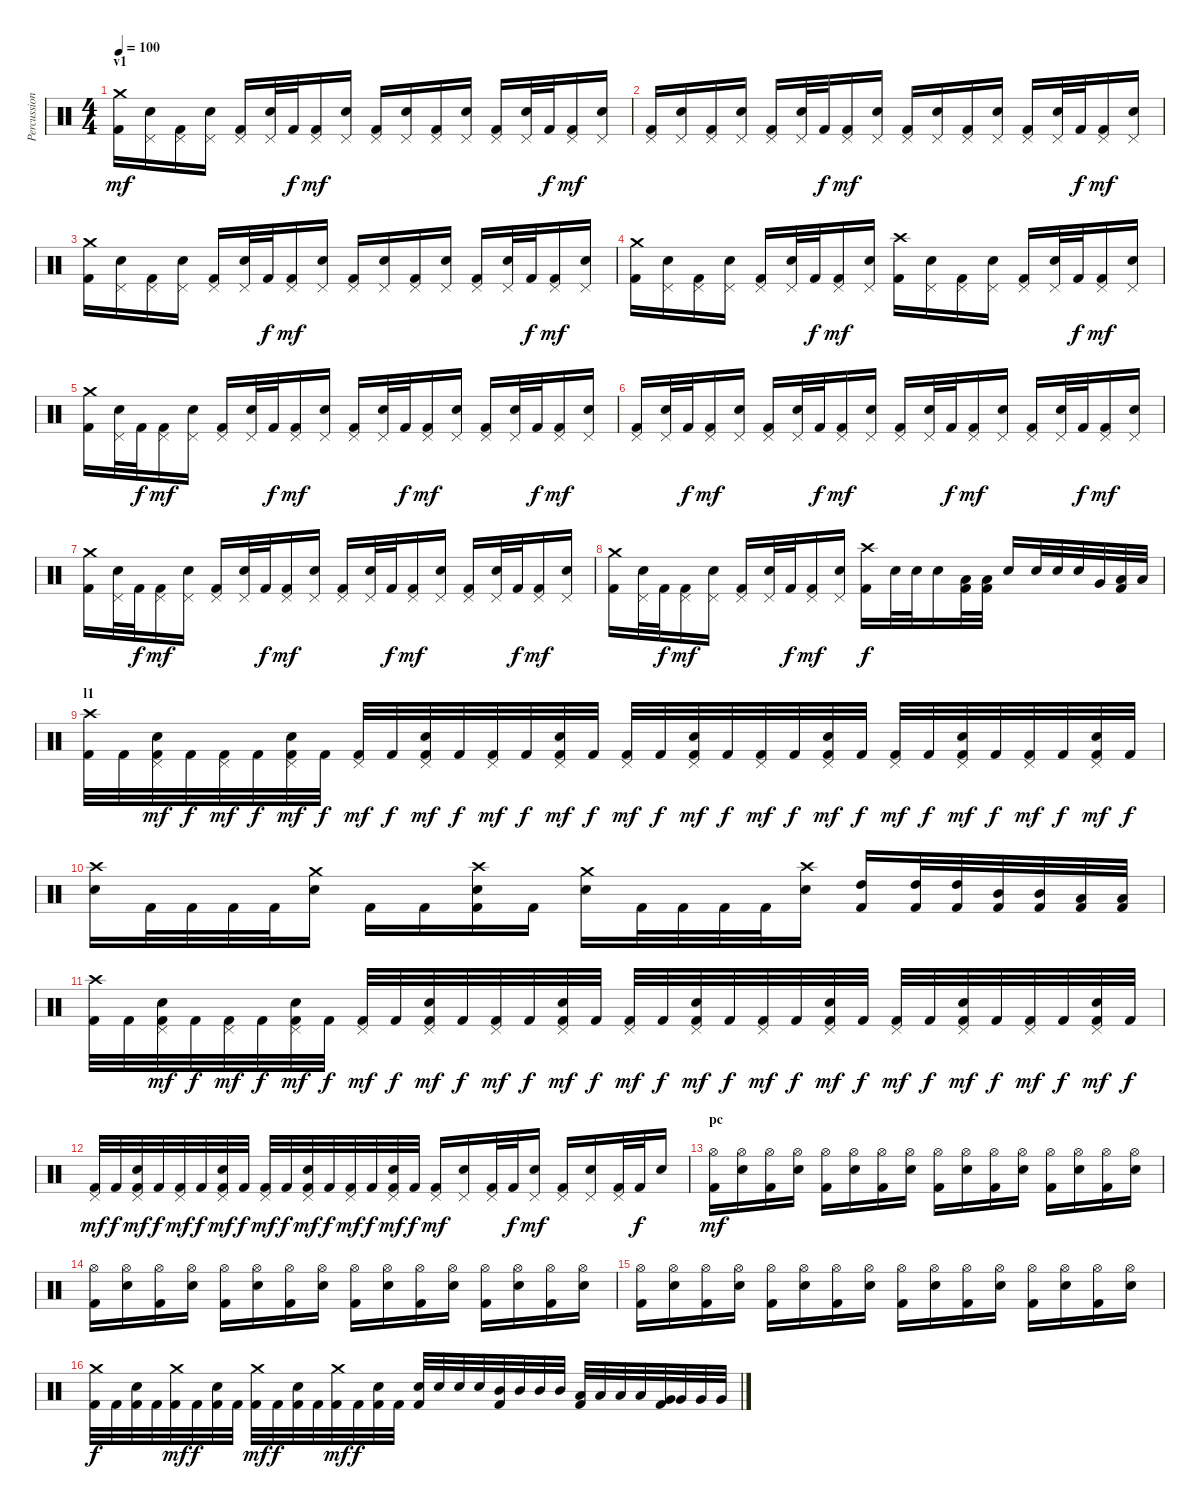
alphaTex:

\track ("Percussion" "Percussion") {instrument percussion}
\staff {score}
\articulation defaults
\ts (4 4)
\section ("" "v1")
\tempo 100
\clef neutral
\ks c
("Crash medium (hit)" "Kick (hit) 2").16{dy mf} ("Pedal Hi-Hat (hit)" "Electric Snare (hit)").16 ("Pedal Hi-Hat (hit)" "Kick (hit) 2").16 ("Pedal Hi-Hat (hit)" "Electric Snare (hit)").16 ("Pedal Hi-Hat (hit)" "Kick (hit) 2").16 ("Pedal Hi-Hat (hit)" "Electric Snare (hit)").32 "Kick (hit) 2".32{dy f} ("Pedal Hi-Hat (hit)" "Kick (hit) 2").16{dy mf} ("Pedal Hi-Hat (hit)" "Electric Snare (hit)").16 ("Pedal Hi-Hat (hit)" "Kick (hit) 2").16 ("Pedal Hi-Hat (hit)" "Electric Snare (hit)").16 ("Pedal Hi-Hat (hit)" "Kick (hit) 2").16 ("Pedal Hi-Hat (hit)" "Electric Snare (hit)").16 ("Pedal Hi-Hat (hit)" "Kick (hit) 2").16 ("Pedal Hi-Hat (hit)" "Electric Snare (hit)").32 "Kick (hit) 2".32{dy f} ("Pedal Hi-Hat (hit)" "Kick (hit) 2").16{dy mf} ("Pedal Hi-Hat (hit)" "Electric Snare (hit)").16 |
("Pedal Hi-Hat (hit)" "Kick (hit) 2").16 ("Pedal Hi-Hat (hit)" "Electric Snare (hit)").16 ("Pedal Hi-Hat (hit)" "Kick (hit) 2").16 ("Pedal Hi-Hat (hit)" "Electric Snare (hit)").16 ("Pedal Hi-Hat (hit)" "Kick (hit) 2").16 ("Pedal Hi-Hat (hit)" "Electric Snare (hit)").32 "Kick (hit) 2".32{dy f} ("Pedal Hi-Hat (hit)" "Kick (hit) 2").16{dy mf} ("Pedal Hi-Hat (hit)" "Electric Snare (hit)").16 ("Pedal Hi-Hat (hit)" "Kick (hit) 2").16 ("Pedal Hi-Hat (hit)" "Electric Snare (hit)").16 ("Pedal Hi-Hat (hit)" "Kick (hit) 2").16 ("Pedal Hi-Hat (hit)" "Electric Snare (hit)").16 ("Pedal Hi-Hat (hit)" "Kick (hit) 2").16 ("Pedal Hi-Hat (hit)" "Electric Snare (hit)").32 "Kick (hit) 2".32{dy f} ("Pedal Hi-Hat (hit)" "Kick (hit) 2").16{dy mf} ("Pedal Hi-Hat (hit)" "Electric Snare (hit)").16 |
("Crash medium (hit)" "Kick (hit) 2").16 ("Pedal Hi-Hat (hit)" "Electric Snare (hit)").16 ("Pedal Hi-Hat (hit)" "Kick (hit) 2").16 ("Pedal Hi-Hat (hit)" "Electric Snare (hit)").16 ("Pedal Hi-Hat (hit)" "Kick (hit) 2").16 ("Pedal Hi-Hat (hit)" "Electric Snare (hit)").32 "Kick (hit) 2".32{dy f} ("Pedal Hi-Hat (hit)" "Kick (hit) 2").16{dy mf} ("Pedal Hi-Hat (hit)" "Electric Snare (hit)").16 ("Pedal Hi-Hat (hit)" "Kick (hit) 2").16 ("Pedal Hi-Hat (hit)" "Electric Snare (hit)").16 ("Pedal Hi-Hat (hit)" "Kick (hit) 2").16 ("Pedal Hi-Hat (hit)" "Electric Snare (hit)").16 ("Pedal Hi-Hat (hit)" "Kick (hit) 2").16 ("Pedal Hi-Hat (hit)" "Electric Snare (hit)").32 "Kick (hit) 2".32{dy f} ("Pedal Hi-Hat (hit)" "Kick (hit) 2").16{dy mf} ("Pedal Hi-Hat (hit)" "Electric Snare (hit)").16 |
("Crash medium (hit)" "Kick (hit) 2").16 ("Pedal Hi-Hat (hit)" "Electric Snare (hit)").16 ("Pedal Hi-Hat (hit)" "Kick (hit) 2").16 ("Pedal Hi-Hat (hit)" "Electric Snare (hit)").16 ("Pedal Hi-Hat (hit)" "Kick (hit) 2").16 ("Pedal Hi-Hat (hit)" "Electric Snare (hit)").32 "Kick (hit) 2".32{dy f} ("Pedal Hi-Hat (hit)" "Kick (hit) 2").16{dy mf} ("Pedal Hi-Hat (hit)" "Electric Snare (hit)").16 ("Crash high (hit)" "Kick (hit) 2").16 ("Pedal Hi-Hat (hit)" "Electric Snare (hit)").16 ("Pedal Hi-Hat (hit)" "Kick (hit) 2").16 ("Pedal Hi-Hat (hit)" "Electric Snare (hit)").16 ("Pedal Hi-Hat (hit)" "Kick (hit) 2").16 ("Pedal Hi-Hat (hit)" "Electric Snare (hit)").32 "Kick (hit) 2".32{dy f} ("Pedal Hi-Hat (hit)" "Kick (hit) 2").16{dy mf} ("Pedal Hi-Hat (hit)" "Electric Snare (hit)").16 |
("Crash medium (hit)" "Kick (hit) 2").16 ("Pedal Hi-Hat (hit)" "Electric Snare (hit)").32 "Kick (hit) 2".32{dy f} ("Pedal Hi-Hat (hit)" "Kick (hit) 2").16{dy mf} ("Pedal Hi-Hat (hit)" "Electric Snare (hit)").16 ("Pedal Hi-Hat (hit)" "Kick (hit) 2").16 ("Pedal Hi-Hat (hit)" "Electric Snare (hit)").32 "Kick (hit) 2".32{dy f} ("Pedal Hi-Hat (hit)" "Kick (hit) 2").16{dy mf} ("Pedal Hi-Hat (hit)" "Electric Snare (hit)").16 ("Pedal Hi-Hat (hit)" "Kick (hit) 2").16 ("Pedal Hi-Hat (hit)" "Electric Snare (hit)").32 "Kick (hit) 2".32{dy f} ("Pedal Hi-Hat (hit)" "Kick (hit) 2").16{dy mf} ("Pedal Hi-Hat (hit)" "Electric Snare (hit)").16 ("Pedal Hi-Hat (hit)" "Kick (hit) 2").16 ("Pedal Hi-Hat (hit)" "Electric Snare (hit)").32 "Kick (hit) 2".32{dy f} ("Pedal Hi-Hat (hit)" "Kick (hit) 2").16{dy mf} ("Pedal Hi-Hat (hit)" "Electric Snare (hit)").16 |
("Pedal Hi-Hat (hit)" "Kick (hit) 2").16 ("Pedal Hi-Hat (hit)" "Electric Snare (hit)").32 "Kick (hit) 2".32{dy f} ("Pedal Hi-Hat (hit)" "Kick (hit) 2").16{dy mf} ("Pedal Hi-Hat (hit)" "Electric Snare (hit)").16 ("Pedal Hi-Hat (hit)" "Kick (hit) 2").16 ("Pedal Hi-Hat (hit)" "Electric Snare (hit)").32 "Kick (hit) 2".32{dy f} ("Pedal Hi-Hat (hit)" "Kick (hit) 2").16{dy mf} ("Pedal Hi-Hat (hit)" "Electric Snare (hit)").16 ("Pedal Hi-Hat (hit)" "Kick (hit) 2").16 ("Pedal Hi-Hat (hit)" "Electric Snare (hit)").32 "Kick (hit) 2".32{dy f} ("Pedal Hi-Hat (hit)" "Kick (hit) 2").16{dy mf} ("Pedal Hi-Hat (hit)" "Electric Snare (hit)").16 ("Pedal Hi-Hat (hit)" "Kick (hit) 2").16 ("Pedal Hi-Hat (hit)" "Electric Snare (hit)").32 "Kick (hit) 2".32{dy f} ("Pedal Hi-Hat (hit)" "Kick (hit) 2").16{dy mf} ("Pedal Hi-Hat (hit)" "Electric Snare (hit)").16 |
("Crash medium (hit)" "Kick (hit) 2").16 ("Pedal Hi-Hat (hit)" "Electric Snare (hit)").32 "Kick (hit) 2".32{dy f} ("Pedal Hi-Hat (hit)" "Kick (hit) 2").16{dy mf} ("Pedal Hi-Hat (hit)" "Electric Snare (hit)").16 ("Pedal Hi-Hat (hit)" "Kick (hit) 2").16 ("Pedal Hi-Hat (hit)" "Electric Snare (hit)").32 "Kick (hit) 2".32{dy f} ("Pedal Hi-Hat (hit)" "Kick (hit) 2").16{dy mf} ("Pedal Hi-Hat (hit)" "Electric Snare (hit)").16 ("Pedal Hi-Hat (hit)" "Kick (hit) 2").16 ("Pedal Hi-Hat (hit)" "Electric Snare (hit)").32 "Kick (hit) 2".32{dy f} ("Pedal Hi-Hat (hit)" "Kick (hit) 2").16{dy mf} ("Pedal Hi-Hat (hit)" "Electric Snare (hit)").16 ("Pedal Hi-Hat (hit)" "Kick (hit) 2").16 ("Pedal Hi-Hat (hit)" "Electric Snare (hit)").32 "Kick (hit) 2".32{dy f} ("Pedal Hi-Hat (hit)" "Kick (hit) 2").16{dy mf} ("Pedal Hi-Hat (hit)" "Electric Snare (hit)").16 |
("Crash medium (hit)" "Kick (hit) 2").16 ("Pedal Hi-Hat (hit)" "Electric Snare (hit)").32 "Kick (hit) 2".32{dy f} ("Pedal Hi-Hat (hit)" "Kick (hit) 2").16{dy mf} ("Pedal Hi-Hat (hit)" "Electric Snare (hit)").16 ("Pedal Hi-Hat (hit)" "Kick (hit) 2").16 ("Pedal Hi-Hat (hit)" "Electric Snare (hit)").32 "Kick (hit) 2".32{dy f} ("Pedal Hi-Hat (hit)" "Kick (hit) 2").16{dy mf} ("Pedal Hi-Hat (hit)" "Electric Snare (hit)").16 ("Crash high (hit)" "Kick (hit) 2").16{dy f} "Electric Snare (hit)".32 "Electric Snare (hit)".32 "Electric Snare (hit)".16 ("Low Tom (hit)" "Kick (hit) 2").32 ("Low Tom (hit)" "Kick (hit) 2").32 "Electric Snare (hit)".16 "Electric Snare (hit)".32 "Electric Snare (hit)".32 "Electric Snare (hit)".32 "Very Low Tom (hit)".32 ("Low Floor Tom (hit)" "Kick (hit) 2").32 "Low Floor Tom (hit)".32 |
\section ("" "l1")
("Crash high (hit)" "Kick (hit) 2").32 "Kick (hit) 2".32 ("Pedal Hi-Hat (hit)" "Electric Snare (hit)" "Kick (hit) 2").32{dy mf} "Kick (hit) 2".32{dy f} ("Pedal Hi-Hat (hit)" "Kick (hit) 2").32{dy mf} "Kick (hit) 2".32{dy f} ("Pedal Hi-Hat (hit)" "Electric Snare (hit)" "Kick (hit) 2").32{dy mf} "Kick (hit) 2".32{dy f} ("Pedal Hi-Hat (hit)" "Kick (hit) 2").32{dy mf} "Kick (hit) 2".32{dy f} ("Pedal Hi-Hat (hit)" "Electric Snare (hit)" "Kick (hit) 2").32{dy mf} "Kick (hit) 2".32{dy f} ("Pedal Hi-Hat (hit)" "Kick (hit) 2").32{dy mf} "Kick (hit) 2".32{dy f} ("Pedal Hi-Hat (hit)" "Electric Snare (hit)" "Kick (hit) 2").32{dy mf} "Kick (hit) 2".32{dy f} ("Pedal Hi-Hat (hit)" "Kick (hit) 2").32{dy mf} "Kick (hit) 2".32{dy f} ("Pedal Hi-Hat (hit)" "Electric Snare (hit)" "Kick (hit) 2").32{dy mf} "Kick (hit) 2".32{dy f} ("Pedal Hi-Hat (hit)" "Kick (hit) 2").32{dy mf} "Kick (hit) 2".32{dy f} ("Pedal Hi-Hat (hit)" "Electric Snare (hit)" "Kick (hit) 2").32{dy mf} "Kick (hit) 2".32{dy f} ("Pedal Hi-Hat (hit)" "Kick (hit) 2").32{dy mf} "Kick (hit) 2".32{dy f} ("Pedal Hi-Hat (hit)" "Electric Snare (hit)" "Kick (hit) 2").32{dy mf} "Kick (hit) 2".32{dy f} ("Pedal Hi-Hat (hit)" "Kick (hit) 2").32{dy mf} "Kick (hit) 2".32{dy f} ("Pedal Hi-Hat (hit)" "Electric Snare (hit)" "Kick (hit) 2").32{dy mf} "Kick (hit) 2".32{dy f} |
("Crash high (hit)" "Electric Snare (hit)").16 "Kick (hit) 2".32 "Kick (hit) 2".32 "Kick (hit) 2".32 "Kick (hit) 2".32 ("Crash medium (hit)" "Electric Snare (hit)").16 "Kick (hit) 2".16 "Kick (hit) 2".16 ("Crash high (hit)" "Electric Snare (hit)" "Kick (hit) 2").16 "Kick (hit) 2".16 ("Crash medium (hit)" "Electric Snare (hit)").16 "Kick (hit) 2".32 "Kick (hit) 2".32 "Kick (hit) 2".32 "Kick (hit) 2".32 ("Crash high (hit)" "Electric Snare (hit)").16 ("High Tom (hit)" "Kick (hit) 2").16 ("High Tom (hit)" "Kick (hit) 2").32 ("High Tom (hit)" "Kick (hit) 2").32 ("Mid Tom (hit)" "Kick (hit) 2").32 ("Mid Tom (hit)" "Kick (hit) 2").32 ("Low Tom (hit)" "Kick (hit) 2").32 ("Low Tom (hit)" "Kick (hit) 2").32 |
("Crash high (hit)" "Kick (hit) 2").32 "Kick (hit) 2".32 ("Pedal Hi-Hat (hit)" "Electric Snare (hit)" "Kick (hit) 2").32{dy mf} "Kick (hit) 2".32{dy f} ("Pedal Hi-Hat (hit)" "Kick (hit) 2").32{dy mf} "Kick (hit) 2".32{dy f} ("Pedal Hi-Hat (hit)" "Electric Snare (hit)" "Kick (hit) 2").32{dy mf} "Kick (hit) 2".32{dy f} ("Pedal Hi-Hat (hit)" "Kick (hit) 2").32{dy mf} "Kick (hit) 2".32{dy f} ("Pedal Hi-Hat (hit)" "Electric Snare (hit)" "Kick (hit) 2").32{dy mf} "Kick (hit) 2".32{dy f} ("Pedal Hi-Hat (hit)" "Kick (hit) 2").32{dy mf} "Kick (hit) 2".32{dy f} ("Pedal Hi-Hat (hit)" "Electric Snare (hit)" "Kick (hit) 2").32{dy mf} "Kick (hit) 2".32{dy f} ("Pedal Hi-Hat (hit)" "Kick (hit) 2").32{dy mf} "Kick (hit) 2".32{dy f} ("Pedal Hi-Hat (hit)" "Electric Snare (hit)" "Kick (hit) 2").32{dy mf} "Kick (hit) 2".32{dy f} ("Pedal Hi-Hat (hit)" "Kick (hit) 2").32{dy mf} "Kick (hit) 2".32{dy f} ("Pedal Hi-Hat (hit)" "Electric Snare (hit)" "Kick (hit) 2").32{dy mf} "Kick (hit) 2".32{dy f} ("Pedal Hi-Hat (hit)" "Kick (hit) 2").32{dy mf} "Kick (hit) 2".32{dy f} ("Pedal Hi-Hat (hit)" "Electric Snare (hit)" "Kick (hit) 2").32{dy mf} "Kick (hit) 2".32{dy f} ("Pedal Hi-Hat (hit)" "Kick (hit) 2").32{dy mf} "Kick (hit) 2".32{dy f} ("Pedal Hi-Hat (hit)" "Electric Snare (hit)" "Kick (hit) 2").32{dy mf} "Kick (hit) 2".32{dy f} |
("Pedal Hi-Hat (hit)" "Kick (hit) 2").32{dy mf} "Kick (hit) 2".32{dy f} ("Pedal Hi-Hat (hit)" "Electric Snare (hit)" "Kick (hit) 2").32{dy mf} "Kick (hit) 2".32{dy f} ("Pedal Hi-Hat (hit)" "Kick (hit) 2").32{dy mf} "Kick (hit) 2".32{dy f} ("Pedal Hi-Hat (hit)" "Electric Snare (hit)" "Kick (hit) 2").32{dy mf} "Kick (hit) 2".32{dy f} ("Pedal Hi-Hat (hit)" "Kick (hit) 2").32{dy mf} "Kick (hit) 2".32{dy f} ("Pedal Hi-Hat (hit)" "Electric Snare (hit)" "Kick (hit) 2").32{dy mf} "Kick (hit) 2".32{dy f} ("Pedal Hi-Hat (hit)" "Kick (hit) 2").32{dy mf} "Kick (hit) 2".32{dy f} ("Pedal Hi-Hat (hit)" "Electric Snare (hit)" "Kick (hit) 2").32{dy mf} "Kick (hit) 2".32{dy f} ("Pedal Hi-Hat (hit)" "Kick (hit) 2").16{dy mf} ("Pedal Hi-Hat (hit)" "Electric Snare (hit)").16 ("Pedal Hi-Hat (hit)" "Kick (hit) 2").32 "Kick (hit) 2".32{dy f} ("Pedal Hi-Hat (hit)" "Electric Snare (hit)").16{dy mf} ("Pedal Hi-Hat (hit)" "Kick (hit) 2").16 ("Pedal Hi-Hat (hit)" "Electric Snare (hit)").16 ("Pedal Hi-Hat (hit)" "Kick (hit) 2").32 "Kick (hit) 2".32{dy f} "Electric Snare (hit)".16 |
\section ("" "pc")
("Hi-Hat (open)" "Kick (hit) 2").16{dy mf} ("Hi-Hat (open)" "Electric Snare (hit)").16 ("Hi-Hat (open)" "Kick (hit) 2").16 ("Hi-Hat (open)" "Electric Snare (hit)").16 ("Hi-Hat (open)" "Kick (hit) 2").16 ("Hi-Hat (open)" "Electric Snare (hit)").16 ("Hi-Hat (open)" "Kick (hit) 2").16 ("Hi-Hat (open)" "Electric Snare (hit)").16 ("Hi-Hat (open)" "Kick (hit) 2").16 ("Hi-Hat (open)" "Electric Snare (hit)").16 ("Hi-Hat (open)" "Kick (hit) 2").16 ("Hi-Hat (open)" "Electric Snare (hit)").16 ("Hi-Hat (open)" "Kick (hit) 2").16 ("Hi-Hat (open)" "Electric Snare (hit)").16 ("Hi-Hat (open)" "Kick (hit) 2").16 ("Hi-Hat (open)" "Electric Snare (hit)").16 |
("Hi-Hat (open)" "Kick (hit) 2").16 ("Hi-Hat (open)" "Electric Snare (hit)").16 ("Hi-Hat (open)" "Kick (hit) 2").16 ("Hi-Hat (open)" "Electric Snare (hit)").16 ("Hi-Hat (open)" "Kick (hit) 2").16 ("Hi-Hat (open)" "Electric Snare (hit)").16 ("Hi-Hat (open)" "Kick (hit) 2").16 ("Hi-Hat (open)" "Electric Snare (hit)").16 ("Hi-Hat (open)" "Kick (hit) 2").16 ("Hi-Hat (open)" "Electric Snare (hit)").16 ("Hi-Hat (open)" "Kick (hit) 2").16 ("Hi-Hat (open)" "Electric Snare (hit)").16 ("Hi-Hat (open)" "Kick (hit) 2").16 ("Hi-Hat (open)" "Electric Snare (hit)").16 ("Hi-Hat (open)" "Kick (hit) 2").16 ("Hi-Hat (open)" "Electric Snare (hit)").16 |
("Hi-Hat (open)" "Kick (hit) 2").16 ("Hi-Hat (open)" "Electric Snare (hit)").16 ("Hi-Hat (open)" "Kick (hit) 2").16 ("Hi-Hat (open)" "Electric Snare (hit)").16 ("Hi-Hat (open)" "Kick (hit) 2").16 ("Hi-Hat (open)" "Electric Snare (hit)").16 ("Hi-Hat (open)" "Kick (hit) 2").16 ("Hi-Hat (open)" "Electric Snare (hit)").16 ("Hi-Hat (open)" "Kick (hit) 2").16 ("Hi-Hat (open)" "Electric Snare (hit)").16 ("Hi-Hat (open)" "Kick (hit) 2").16 ("Hi-Hat (open)" "Electric Snare (hit)").16 ("Hi-Hat (open)" "Kick (hit) 2").16 ("Hi-Hat (open)" "Electric Snare (hit)").16 ("Hi-Hat (open)" "Kick (hit) 2").16 ("Hi-Hat (open)" "Electric Snare (hit)").16 |
("Crash medium (hit)" "Kick (hit) 2").32{dy f} "Kick (hit) 2".32 ("Electric Snare (hit)" "Kick (hit) 2").32 "Kick (hit) 2".32 ("Crash medium (hit)" "Kick (hit) 2").32{dy mf} "Kick (hit) 2".32{dy f} ("Electric Snare (hit)" "Kick (hit) 2").32 "Kick (hit) 2".32 ("Crash medium (hit)" "Kick (hit) 2").32{dy mf} "Kick (hit) 2".32{dy f} ("Electric Snare (hit)" "Kick (hit) 2").32 "Kick (hit) 2".32 ("Crash medium (hit)" "Kick (hit) 2").32{dy mf} "Kick (hit) 2".32{dy f} ("Electric Snare (hit)" "Kick (hit) 2").32 "Kick (hit) 2".32 ("Electric Snare (hit)" "Kick (hit) 2").32 "Electric Snare (hit)".32 "Electric Snare (hit)".32 "Electric Snare (hit)".32 ("Mid Tom (hit)" "Kick (hit) 2").32 "Mid Tom (hit)".32 "Mid Tom (hit)".32 "Mid Tom (hit)".32 ("Low Tom (hit)" "Kick (hit) 2").32 "Low Tom (hit)".32 "Low Tom (hit)".32 "Low Tom (hit)".32 ("Very Low Tom (hit)" "Kick (hit) 2").32 "Very Low Tom (hit)".32 "Very Low Tom (hit)".32 "Very Low Tom (hit)".32
